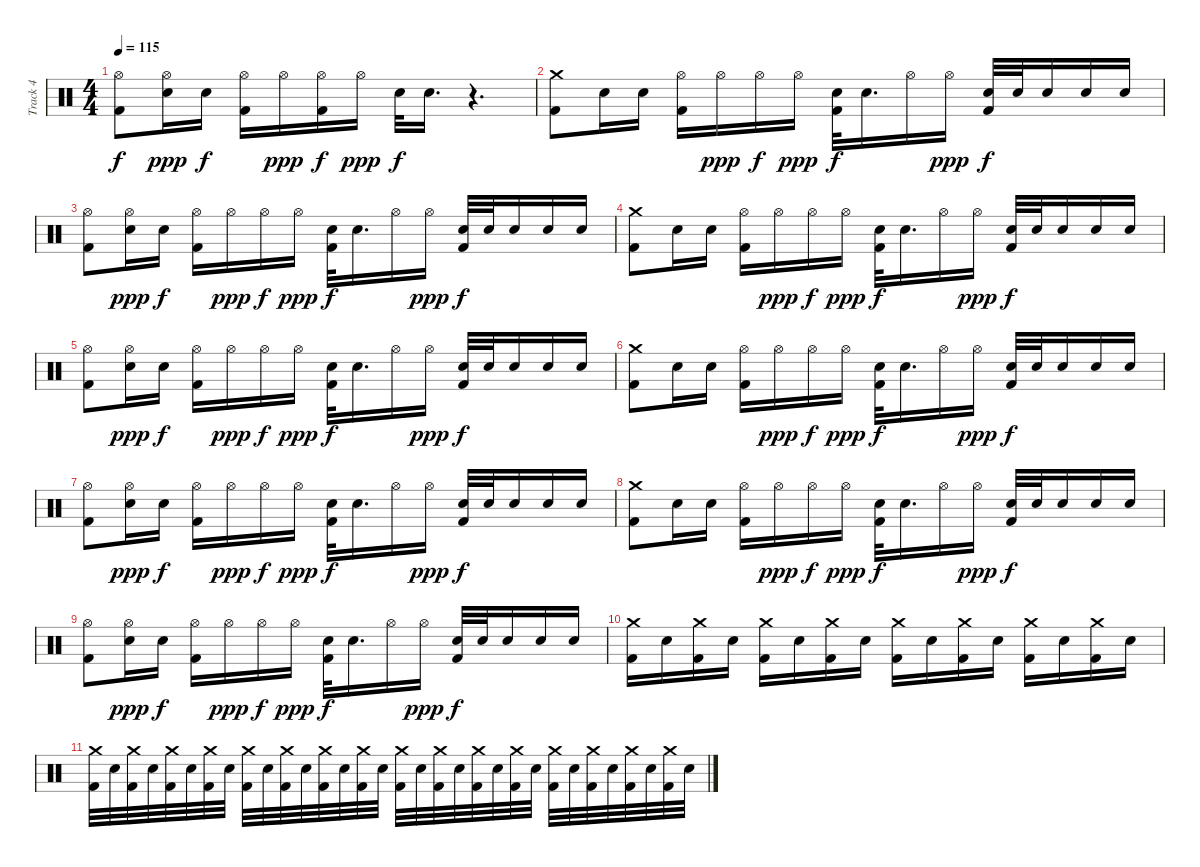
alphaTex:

\track ("Track 4" "Track 4") {instrument percussion}
\staff {score}
\articulation defaults
\ts (4 4)
\tempo 115
\clef neutral
\ks c
("Hi-Hat (open)" "Kick (hit) 2").8{dy f} ("Hi-Hat (open)" "Electric Snare (hit)").16{dy ppp} "Electric Snare (hit)".16{dy f} ("Hi-Hat (open)" "Kick (hit) 2").16 "Hi-Hat (open)".16{dy ppp} ("Hi-Hat (open)" "Kick (hit) 2").16{dy f} "Hi-Hat (open)".16{dy ppp} "Electric Snare (hit)".32{dy f} "Electric Snare (hit)".16{d} r.4{d} |
("Crash medium (hit)" "Kick (hit) 2").8 "Electric Snare (hit)".16 "Electric Snare (hit)".16 ("Hi-Hat (open)" "Kick (hit) 2").16 "Hi-Hat (open)".16{dy ppp} "Hi-Hat (open)".16{dy f} "Hi-Hat (open)".16{dy ppp} ("Electric Snare (hit)" "Kick (hit) 2").32{dy f} "Electric Snare (hit)".16{d} "Hi-Hat (open)".16 "Hi-Hat (open)".16{dy ppp} ("Electric Snare (hit)" "Kick (hit) 2").32{dy f} "Electric Snare (hit)".32 "Electric Snare (hit)".16 "Electric Snare (hit)".16 "Electric Snare (hit)".16 |
("Hi-Hat (open)" "Kick (hit) 2").8 ("Hi-Hat (open)" "Electric Snare (hit)").16{dy ppp} "Electric Snare (hit)".16{dy f} ("Hi-Hat (open)" "Kick (hit) 2").16 "Hi-Hat (open)".16{dy ppp} "Hi-Hat (open)".16{dy f} "Hi-Hat (open)".16{dy ppp} ("Electric Snare (hit)" "Kick (hit) 2").32{dy f} "Electric Snare (hit)".16{d} "Hi-Hat (open)".16 "Hi-Hat (open)".16{dy ppp} ("Electric Snare (hit)" "Kick (hit) 2").32{dy f} "Electric Snare (hit)".32 "Electric Snare (hit)".16 "Electric Snare (hit)".16 "Electric Snare (hit)".16 |
("Crash medium (hit)" "Kick (hit) 2").8 "Electric Snare (hit)".16 "Electric Snare (hit)".16 ("Hi-Hat (open)" "Kick (hit) 2").16 "Hi-Hat (open)".16{dy ppp} "Hi-Hat (open)".16{dy f} "Hi-Hat (open)".16{dy ppp} ("Electric Snare (hit)" "Kick (hit) 2").32{dy f} "Electric Snare (hit)".16{d} "Hi-Hat (open)".16 "Hi-Hat (open)".16{dy ppp} ("Electric Snare (hit)" "Kick (hit) 2").32{dy f} "Electric Snare (hit)".32 "Electric Snare (hit)".16 "Electric Snare (hit)".16 "Electric Snare (hit)".16 |
("Hi-Hat (open)" "Kick (hit) 2").8 ("Hi-Hat (open)" "Electric Snare (hit)").16{dy ppp} "Electric Snare (hit)".16{dy f} ("Hi-Hat (open)" "Kick (hit) 2").16 "Hi-Hat (open)".16{dy ppp} "Hi-Hat (open)".16{dy f} "Hi-Hat (open)".16{dy ppp} ("Electric Snare (hit)" "Kick (hit) 2").32{dy f} "Electric Snare (hit)".16{d} "Hi-Hat (open)".16 "Hi-Hat (open)".16{dy ppp} ("Electric Snare (hit)" "Kick (hit) 2").32{dy f} "Electric Snare (hit)".32 "Electric Snare (hit)".16 "Electric Snare (hit)".16 "Electric Snare (hit)".16 |
("Crash medium (hit)" "Kick (hit) 2").8 "Electric Snare (hit)".16 "Electric Snare (hit)".16 ("Hi-Hat (open)" "Kick (hit) 2").16 "Hi-Hat (open)".16{dy ppp} "Hi-Hat (open)".16{dy f} "Hi-Hat (open)".16{dy ppp} ("Electric Snare (hit)" "Kick (hit) 2").32{dy f} "Electric Snare (hit)".16{d} "Hi-Hat (open)".16 "Hi-Hat (open)".16{dy ppp} ("Electric Snare (hit)" "Kick (hit) 2").32{dy f} "Electric Snare (hit)".32 "Electric Snare (hit)".16 "Electric Snare (hit)".16 "Electric Snare (hit)".16 |
("Hi-Hat (open)" "Kick (hit) 2").8 ("Hi-Hat (open)" "Electric Snare (hit)").16{dy ppp} "Electric Snare (hit)".16{dy f} ("Hi-Hat (open)" "Kick (hit) 2").16 "Hi-Hat (open)".16{dy ppp} "Hi-Hat (open)".16{dy f} "Hi-Hat (open)".16{dy ppp} ("Electric Snare (hit)" "Kick (hit) 2").32{dy f} "Electric Snare (hit)".16{d} "Hi-Hat (open)".16 "Hi-Hat (open)".16{dy ppp} ("Electric Snare (hit)" "Kick (hit) 2").32{dy f} "Electric Snare (hit)".32 "Electric Snare (hit)".16 "Electric Snare (hit)".16 "Electric Snare (hit)".16 |
("Crash medium (hit)" "Kick (hit) 2").8 "Electric Snare (hit)".16 "Electric Snare (hit)".16 ("Hi-Hat (open)" "Kick (hit) 2").16 "Hi-Hat (open)".16{dy ppp} "Hi-Hat (open)".16{dy f} "Hi-Hat (open)".16{dy ppp} ("Electric Snare (hit)" "Kick (hit) 2").32{dy f} "Electric Snare (hit)".16{d} "Hi-Hat (open)".16 "Hi-Hat (open)".16{dy ppp} ("Electric Snare (hit)" "Kick (hit) 2").32{dy f} "Electric Snare (hit)".32 "Electric Snare (hit)".16 "Electric Snare (hit)".16 "Electric Snare (hit)".16 |
("Hi-Hat (open)" "Kick (hit) 2").8 ("Hi-Hat (open)" "Electric Snare (hit)").16{dy ppp} "Electric Snare (hit)".16{dy f} ("Hi-Hat (open)" "Kick (hit) 2").16 "Hi-Hat (open)".16{dy ppp} "Hi-Hat (open)".16{dy f} "Hi-Hat (open)".16{dy ppp} ("Electric Snare (hit)" "Kick (hit) 2").32{dy f} "Electric Snare (hit)".16{d} "Hi-Hat (open)".16 "Hi-Hat (open)".16{dy ppp} ("Electric Snare (hit)" "Kick (hit) 2").32{dy f} "Electric Snare (hit)".32 "Electric Snare (hit)".16 "Electric Snare (hit)".16 "Electric Snare (hit)".16 |
("Crash medium (hit)" "Kick (hit) 2").16 "Snare (hit) 2".16 ("Crash medium (hit)" "Kick (hit) 2").16 "Snare (hit) 2".16 ("Crash medium (hit)" "Kick (hit) 2").16 "Snare (hit) 2".16 ("Crash medium (hit)" "Kick (hit) 2").16 "Snare (hit) 2".16 ("Crash medium (hit)" "Kick (hit) 2").16 "Snare (hit) 2".16 ("Crash medium (hit)" "Kick (hit) 2").16 "Snare (hit) 2".16 ("Crash medium (hit)" "Kick (hit) 2").16 "Snare (hit) 2".16 ("Crash medium (hit)" "Kick (hit) 2").16 "Snare (hit) 2".16 |
("Crash medium (hit)" "Kick (hit) 2").32 "Snare (hit) 2".32 ("Crash medium (hit)" "Kick (hit) 2").32 "Snare (hit) 2".32 ("Crash medium (hit)" "Kick (hit) 2").32 "Snare (hit) 2".32 ("Crash medium (hit)" "Kick (hit) 2").32 "Snare (hit) 2".32 ("Crash medium (hit)" "Kick (hit) 2").32 "Snare (hit) 2".32 ("Crash medium (hit)" "Kick (hit) 2").32 "Snare (hit) 2".32 ("Crash medium (hit)" "Kick (hit) 2").32 "Snare (hit) 2".32 ("Crash medium (hit)" "Kick (hit) 2").32 "Snare (hit) 2".32 ("Crash medium (hit)" "Kick (hit) 2").32 "Snare (hit) 2".32 ("Crash medium (hit)" "Kick (hit) 2").32 "Snare (hit) 2".32 ("Crash medium (hit)" "Kick (hit) 2").32 "Snare (hit) 2".32 ("Crash medium (hit)" "Kick (hit) 2").32 "Snare (hit) 2".32 ("Crash medium (hit)" "Kick (hit) 2").32 "Snare (hit) 2".32 ("Crash medium (hit)" "Kick (hit) 2").32 "Snare (hit) 2".32 ("Crash medium (hit)" "Kick (hit) 2").32 "Snare (hit) 2".32 ("Crash medium (hit)" "Kick (hit) 2").32 "Snare (hit) 2".32
